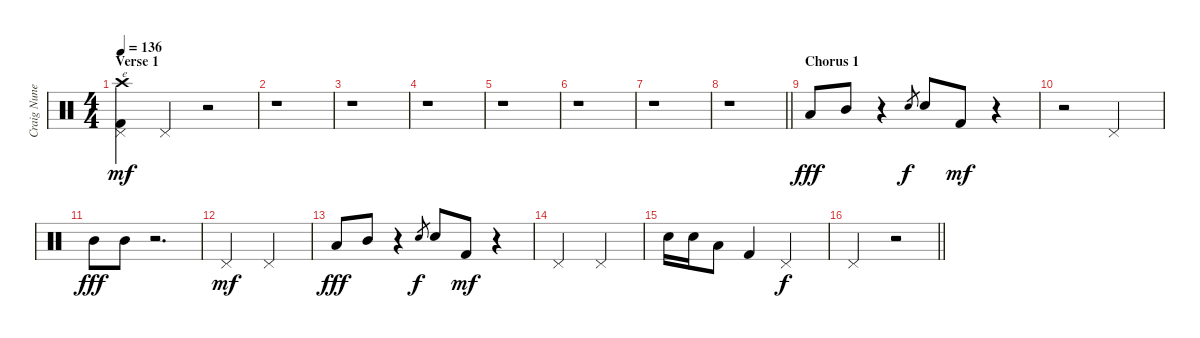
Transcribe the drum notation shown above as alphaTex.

\track ("Craig Nunenmancher" "Craig Nune") {instrument percussion}
\staff {score}
\articulation defaults
\ts (4 4)
\section ("" "Verse 1")
\tempo 136
\clef neutral
\ks c
("Crash high (hit)" "Pedal Hi-Hat (hit)" "Kick (hit) 2").4{txt "e" dy mf} "Pedal Hi-Hat (hit)".4 r.2 |
r.1 |
r.1 |
r.1 |
r.1 |
r.1 |
r.1 |
\barLineRight lightlight
r.1 |
\section ("" "Chorus 1")
"Low Floor Tom (hit)".8{dy fff} "Mid Tom (hit)".8 r.4 "Snare (hit) 2".8{gr dy f} "Snare (hit) 2".8 "Kick (hit) 2".8{dy mf} r.4 |
r.2 "Pedal Hi-Hat (hit)".2 |
"Mid Tom (hit)".8{dy fff} "Mid Tom (hit)".8 r.2{d} |
"Pedal Hi-Hat (hit)".2{dy mf} "Pedal Hi-Hat (hit)".2 |
"Low Floor Tom (hit)".8{dy fff} "Mid Tom (hit)".8 r.4 "Snare (hit) 2".8{gr dy f} "Snare (hit) 2".8 "Kick (hit) 2".8{dy mf} r.4 |
"Pedal Hi-Hat (hit)".2 "Pedal Hi-Hat (hit)".2 |
"Snare (hit) 2".16 "Snare (hit) 2".16 "Low Floor Tom (hit)".8 "Kick (hit) 2".4 "Pedal Hi-Hat (hit)".2{dy f} |
\barLineRight lightlight "Pedal Hi-Hat (hit)".2
r.2
